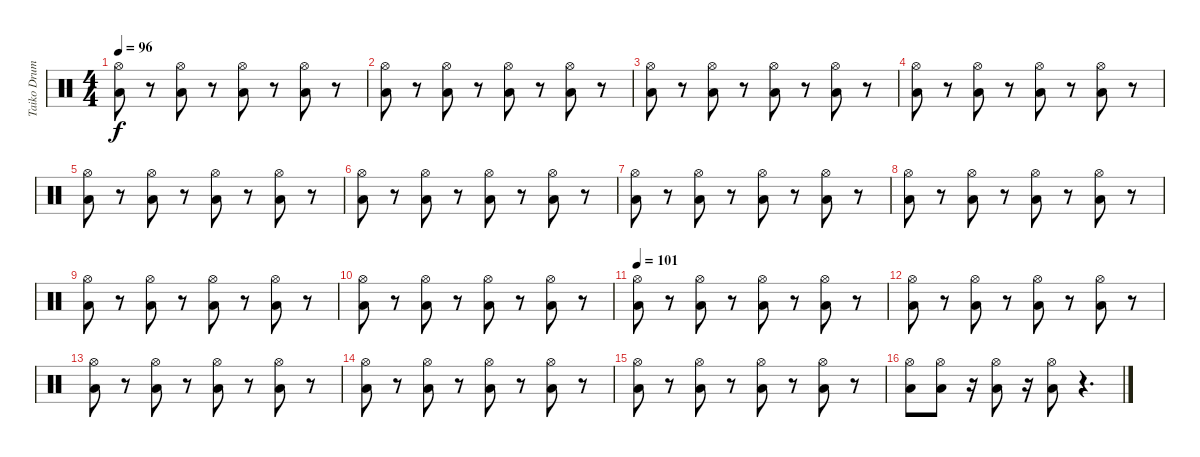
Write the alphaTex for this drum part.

\track ("Taiko Drum" "Taiko Drum") {instrument percussion}
\staff {score}
\articulation defaults
\ts (4 4)
\tempo 96
\clef neutral
\ks c
("Hi-Hat (open)" "Low Floor Tom (hit)").8{dy f} r.8 ("Low Floor Tom (hit)" "Hi-Hat (open)").8 r.8 ("Low Floor Tom (hit)" "Hi-Hat (open)").8 r.8 ("Low Floor Tom (hit)" "Hi-Hat (open)").8 r.8 |
("Hi-Hat (open)" "Low Floor Tom (hit)").8 r.8 ("Hi-Hat (open)" "Low Floor Tom (hit)").8 r.8 ("Hi-Hat (open)" "Low Floor Tom (hit)").8 r.8 ("Hi-Hat (open)" "Low Floor Tom (hit)").8 r.8 |
("Hi-Hat (open)" "Low Floor Tom (hit)").8 r.8 ("Low Floor Tom (hit)" "Hi-Hat (open)").8 r.8 ("Low Floor Tom (hit)" "Hi-Hat (open)").8 r.8 ("Low Floor Tom (hit)" "Hi-Hat (open)").8 r.8 |
("Hi-Hat (open)" "Low Floor Tom (hit)").8 r.8 ("Hi-Hat (open)" "Low Floor Tom (hit)").8 r.8 ("Hi-Hat (open)" "Low Floor Tom (hit)").8 r.8 ("Hi-Hat (open)" "Low Floor Tom (hit)").8 r.8 |
("Hi-Hat (open)" "Low Floor Tom (hit)").8 r.8 ("Low Floor Tom (hit)" "Hi-Hat (open)").8 r.8 ("Low Floor Tom (hit)" "Hi-Hat (open)").8 r.8 ("Low Floor Tom (hit)" "Hi-Hat (open)").8 r.8 |
("Hi-Hat (open)" "Low Floor Tom (hit)").8 r.8 ("Hi-Hat (open)" "Low Floor Tom (hit)").8 r.8 ("Hi-Hat (open)" "Low Floor Tom (hit)").8 r.8 ("Hi-Hat (open)" "Low Floor Tom (hit)").8 r.8 |
("Hi-Hat (open)" "Low Floor Tom (hit)").8 r.8 ("Low Floor Tom (hit)" "Hi-Hat (open)").8 r.8 ("Low Floor Tom (hit)" "Hi-Hat (open)").8 r.8 ("Low Floor Tom (hit)" "Hi-Hat (open)").8 r.8 |
("Hi-Hat (open)" "Low Floor Tom (hit)").8 r.8 ("Hi-Hat (open)" "Low Floor Tom (hit)").8 r.8 ("Hi-Hat (open)" "Low Floor Tom (hit)").8 r.8 ("Hi-Hat (open)" "Low Floor Tom (hit)").8 r.8 |
("Hi-Hat (open)" "Low Floor Tom (hit)").8 r.8 ("Low Floor Tom (hit)" "Hi-Hat (open)").8 r.8 ("Low Floor Tom (hit)" "Hi-Hat (open)").8 r.8 ("Low Floor Tom (hit)" "Hi-Hat (open)").8 r.8 |
("Hi-Hat (open)" "Low Floor Tom (hit)").8 r.8 ("Hi-Hat (open)" "Low Floor Tom (hit)").8 r.8 ("Hi-Hat (open)" "Low Floor Tom (hit)").8 r.8 ("Hi-Hat (open)" "Low Floor Tom (hit)").8 r.8 |
\tempo 101
("Hi-Hat (open)" "Low Floor Tom (hit)").8 r.8 ("Low Floor Tom (hit)" "Hi-Hat (open)").8 r.8 ("Low Floor Tom (hit)" "Hi-Hat (open)").8 r.8 ("Low Floor Tom (hit)" "Hi-Hat (open)").8 r.8 |
("Hi-Hat (open)" "Low Floor Tom (hit)").8 r.8 ("Hi-Hat (open)" "Low Floor Tom (hit)").8 r.8 ("Hi-Hat (open)" "Low Floor Tom (hit)").8 r.8 ("Hi-Hat (open)" "Low Floor Tom (hit)").8 r.8 |
("Hi-Hat (open)" "Low Floor Tom (hit)").8 r.8 ("Low Floor Tom (hit)" "Hi-Hat (open)").8 r.8 ("Low Floor Tom (hit)" "Hi-Hat (open)").8 r.8 ("Low Floor Tom (hit)" "Hi-Hat (open)").8 r.8 |
("Hi-Hat (open)" "Low Floor Tom (hit)").8 r.8 ("Hi-Hat (open)" "Low Floor Tom (hit)").8 r.8 ("Hi-Hat (open)" "Low Floor Tom (hit)").8 r.8 ("Hi-Hat (open)" "Low Floor Tom (hit)").8 r.8 |
("Hi-Hat (open)" "Low Floor Tom (hit)").8 r.8 ("Low Floor Tom (hit)" "Hi-Hat (open)").8 r.8 ("Low Floor Tom (hit)" "Hi-Hat (open)").8 r.8 ("Low Floor Tom (hit)" "Hi-Hat (open)").8 r.8 |
("Hi-Hat (open)" "Low Floor Tom (hit)").8 ("Hi-Hat (open)" "Low Floor Tom (hit)").8 r.16 ("Hi-Hat (open)" "Low Floor Tom (hit)").8 r.16 ("Hi-Hat (open)" "Low Floor Tom (hit)").8 r.4{d}
